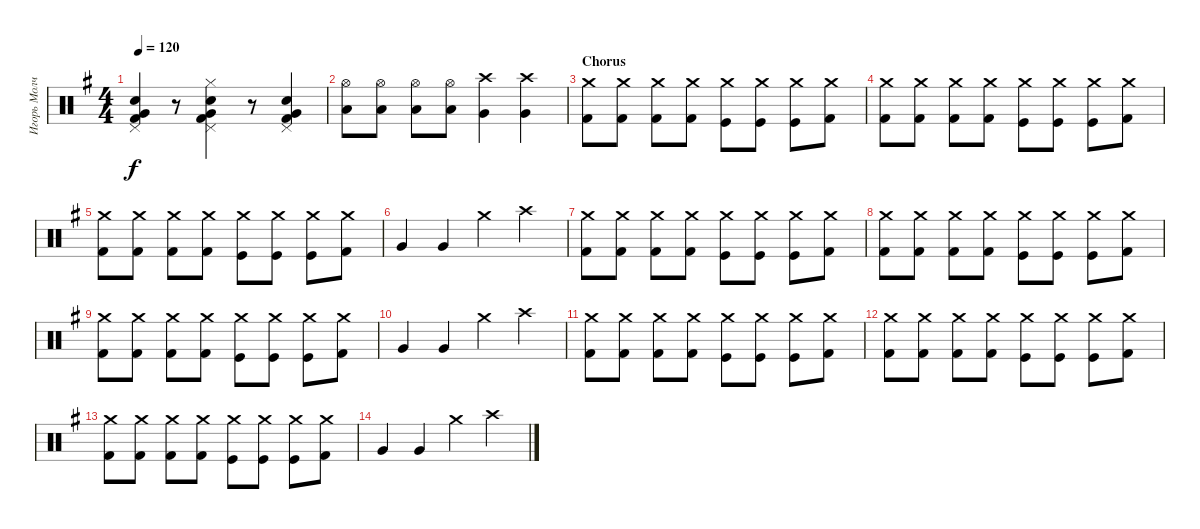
\track ("Игорь Молчанов" "Игорь Молч") {instrument percussion}
\staff {score}
\articulation defaults
\ts (4 4)
\tempo 120
\clef neutral
\ks eminor
("Pedal Hi-Hat (hit)" "Very Low Tom (hit)" "Electric Snare (hit)" "Kick (hit) 2").4{dy f} r.8 ("Snare (hit) 2" "Hi-Hat (closed)" "Pedal Hi-Hat (hit)" "Very Low Tom (hit)" "Kick (hit) 2").4 r.8 ("Pedal Hi-Hat (hit)" "Very Low Tom (hit)" "Electric Snare (hit)" "Kick (hit) 2").4 |
("Low Floor Tom (hit)" "Hi-Hat (open)").8 ("Low Floor Tom (hit)" "Hi-Hat (open)").8 ("Low Floor Tom (hit)" "Hi-Hat (open)").8 ("Low Floor Tom (hit)" "Hi-Hat (open)").8 ("Very Low Tom (hit)" "Crash high (hit)").4 ("Very Low Tom (hit)" "Crash high (hit)").4 |
\section ("" "Chorus")
("Crash medium (hit)" "Kick (hit) 2").8 ("Crash medium (hit)" "Kick (hit) 2").8 ("Crash medium (hit)" "Kick (hit) 2").8 ("Crash medium (hit)" "Kick (hit) 2").8 ("Crash medium (hit)" "Kick (hit)").8 ("Crash medium (hit)" "Kick (hit)").8 ("Crash medium (hit)" "Kick (hit)").8 ("Crash medium (hit)" "Kick (hit) 2").8 |
("Crash medium (hit)" "Kick (hit) 2").8 ("Crash medium (hit)" "Kick (hit) 2").8 ("Crash medium (hit)" "Kick (hit) 2").8 ("Crash medium (hit)" "Kick (hit) 2").8 ("Crash medium (hit)" "Kick (hit)").8 ("Crash medium (hit)" "Kick (hit)").8 ("Crash medium (hit)" "Kick (hit)").8 ("Crash medium (hit)" "Kick (hit) 2").8 |
("Crash medium (hit)" "Kick (hit) 2").8 ("Crash medium (hit)" "Kick (hit) 2").8 ("Crash medium (hit)" "Kick (hit) 2").8 ("Crash medium (hit)" "Kick (hit) 2").8 ("Crash medium (hit)" "Kick (hit)").8 ("Crash medium (hit)" "Kick (hit)").8 ("Crash medium (hit)" "Kick (hit)").8 ("Crash medium (hit)" "Kick (hit) 2").8 |
"Very Low Tom (hit)".4 "Very Low Tom (hit)".4 "Crash medium (hit)".4 "Crash high (hit)".4 |
("Crash medium (hit)" "Kick (hit) 2").8 ("Crash medium (hit)" "Kick (hit) 2").8 ("Crash medium (hit)" "Kick (hit) 2").8 ("Crash medium (hit)" "Kick (hit) 2").8 ("Crash medium (hit)" "Kick (hit)").8 ("Crash medium (hit)" "Kick (hit)").8 ("Crash medium (hit)" "Kick (hit)").8 ("Crash medium (hit)" "Kick (hit) 2").8 |
("Crash medium (hit)" "Kick (hit) 2").8 ("Crash medium (hit)" "Kick (hit) 2").8 ("Crash medium (hit)" "Kick (hit) 2").8 ("Crash medium (hit)" "Kick (hit) 2").8 ("Crash medium (hit)" "Kick (hit)").8 ("Crash medium (hit)" "Kick (hit)").8 ("Crash medium (hit)" "Kick (hit)").8 ("Crash medium (hit)" "Kick (hit) 2").8 |
("Crash medium (hit)" "Kick (hit) 2").8 ("Crash medium (hit)" "Kick (hit) 2").8 ("Crash medium (hit)" "Kick (hit) 2").8 ("Crash medium (hit)" "Kick (hit) 2").8 ("Crash medium (hit)" "Kick (hit)").8 ("Crash medium (hit)" "Kick (hit)").8 ("Crash medium (hit)" "Kick (hit)").8 ("Crash medium (hit)" "Kick (hit) 2").8 |
"Very Low Tom (hit)".4 "Very Low Tom (hit)".4 "Crash medium (hit)".4 "Crash high (hit)".4 |
("Crash medium (hit)" "Kick (hit) 2").8 ("Crash medium (hit)" "Kick (hit) 2").8 ("Crash medium (hit)" "Kick (hit) 2").8 ("Crash medium (hit)" "Kick (hit) 2").8 ("Crash medium (hit)" "Kick (hit)").8 ("Crash medium (hit)" "Kick (hit)").8 ("Crash medium (hit)" "Kick (hit)").8 ("Crash medium (hit)" "Kick (hit) 2").8 |
("Crash medium (hit)" "Kick (hit) 2").8 ("Crash medium (hit)" "Kick (hit) 2").8 ("Crash medium (hit)" "Kick (hit) 2").8 ("Crash medium (hit)" "Kick (hit) 2").8 ("Crash medium (hit)" "Kick (hit)").8 ("Crash medium (hit)" "Kick (hit)").8 ("Crash medium (hit)" "Kick (hit)").8 ("Crash medium (hit)" "Kick (hit) 2").8 |
("Crash medium (hit)" "Kick (hit) 2").8 ("Crash medium (hit)" "Kick (hit) 2").8 ("Crash medium (hit)" "Kick (hit) 2").8 ("Crash medium (hit)" "Kick (hit) 2").8 ("Crash medium (hit)" "Kick (hit)").8 ("Crash medium (hit)" "Kick (hit)").8 ("Crash medium (hit)" "Kick (hit)").8 ("Crash medium (hit)" "Kick (hit) 2").8 |
"Very Low Tom (hit)".4 "Very Low Tom (hit)".4 "Crash medium (hit)".4 "Crash high (hit)".4
